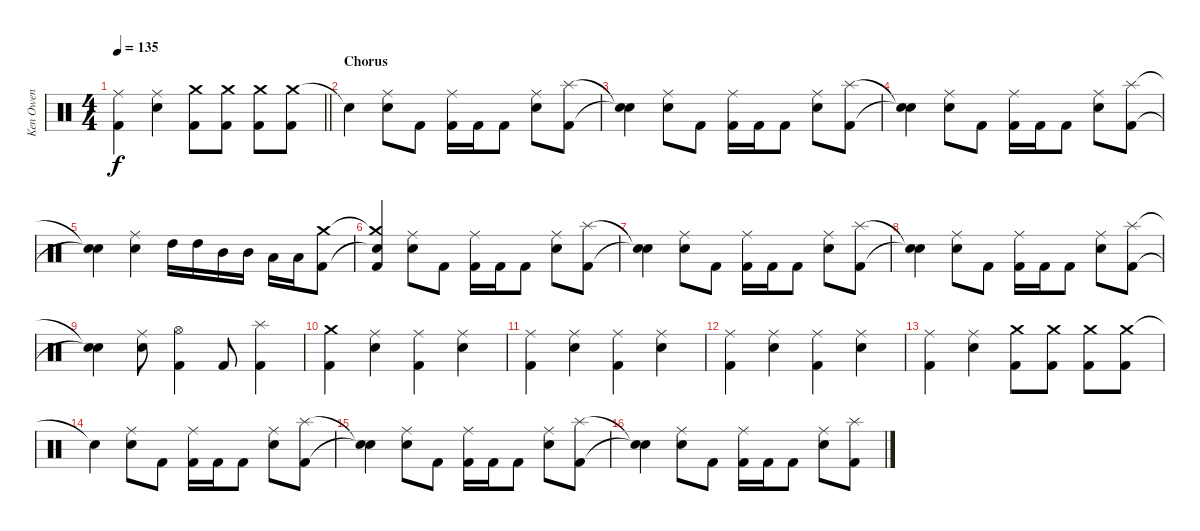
\track ("Ken Owen" "Ken Owen") {instrument percussion}
\staff {score}
\articulation defaults
\ts (4 4)
\tempo 135
\clef neutral
\barLineRight lightlight
\ks c
("Ride (middle)" "Kick (hit) 2").4{dy f} ("Ride (middle)" "Electric Snare (hit)").4 ("Crash medium (hit)" "Kick (hit) 2").8 ("Crash medium (hit)" "Kick (hit) 2").8 ("Crash medium (hit)" "Kick (hit) 2").8 ("Crash medium (hit)" "Kick (hit) 2").8 |
\section ("" "Chorus")
"Snare (hit)"{t}.4 ("Ride (middle)" "Electric Snare (hit)").8 "Kick (hit) 2".8 ("Ride (middle)" "Kick (hit) 2").16 "Kick (hit) 2".16 "Kick (hit) 2".8 ("Ride (middle)" "Electric Snare (hit)").8 ("Splash (hit)" "Kick (hit) 2").8 |
("Snare (hit)"{t} "Snare (hit)"{t}).4 ("Ride (middle)" "Electric Snare (hit)").8 "Kick (hit) 2".8 ("Ride (middle)" "Kick (hit) 2").16 "Kick (hit) 2".16 "Kick (hit) 2".8 ("Ride (middle)" "Electric Snare (hit)").8 ("Splash (hit)" "Kick (hit) 2").8 |
("Snare (hit)"{t} "Snare (hit)"{t}).4 ("Ride (middle)" "Electric Snare (hit)").8 "Kick (hit) 2".8 ("Ride (middle)" "Kick (hit) 2").16 "Kick (hit) 2".16 "Kick (hit) 2".8 ("Ride (middle)" "Electric Snare (hit)").8 ("Splash (hit)" "Kick (hit) 2").8 |
("Snare (hit)"{t} "Snare (hit)"{t}).4 ("Ride (middle)" "Electric Snare (hit)").4 "High Tom (hit)".16 "High Tom (hit)".16 "Mid Tom (hit)".16 "Mid Tom (hit)".16 "Low Tom (hit)".16 "Low Tom (hit)".16 ("Crash medium (hit)" "Kick (hit) 2").8 |
("Crash medium (hit)"{t} "Snare (hit)"{t} "Kick (hit) 2").4 ("Ride (middle)" "Electric Snare (hit)").8 "Kick (hit) 2".8 ("Ride (middle)" "Kick (hit) 2").16 "Kick (hit) 2".16 "Kick (hit) 2".8 ("Ride (middle)" "Electric Snare (hit)").8 ("Splash (hit)" "Kick (hit) 2").8 |
("Snare (hit)"{t} "Snare (hit)"{t}).4 ("Ride (middle)" "Electric Snare (hit)").8 "Kick (hit) 2".8 ("Ride (middle)" "Kick (hit) 2").16 "Kick (hit) 2".16 "Kick (hit) 2".8 ("Ride (middle)" "Electric Snare (hit)").8 ("Splash (hit)" "Kick (hit) 2").8 |
("Snare (hit)"{t} "Snare (hit)"{t}).4 ("Ride (middle)" "Electric Snare (hit)").8 "Kick (hit) 2".8 ("Ride (middle)" "Kick (hit) 2").16 "Kick (hit) 2".16 "Kick (hit) 2".8 ("Ride (middle)" "Electric Snare (hit)").8 ("Splash (hit)" "Kick (hit) 2").8 |
("Snare (hit)"{t} "Snare (hit)"{t}).4 ("Ride (middle)" "Electric Snare (hit)").8 ("Hi-Hat (open)" "Kick (hit) 2").4 "Kick (hit) 2".8 ("Splash (hit)" "Kick (hit) 2").4 |
("Crash medium (hit)" "Kick (hit) 2").4 ("Ride (middle)" "Electric Snare (hit)").4 ("Ride (middle)" "Kick (hit) 2").4 ("Ride (middle)" "Electric Snare (hit)").4 |
("Ride (middle)" "Kick (hit) 2").4 ("Ride (middle)" "Electric Snare (hit)").4 ("Ride (middle)" "Kick (hit) 2").4 ("Ride (middle)" "Electric Snare (hit)").4 |
("Ride (middle)" "Kick (hit) 2").4 ("Ride (middle)" "Electric Snare (hit)").4 ("Ride (middle)" "Kick (hit) 2").4 ("Ride (middle)" "Electric Snare (hit)").4 |
("Ride (middle)" "Kick (hit) 2").4 ("Ride (middle)" "Electric Snare (hit)").4 ("Crash medium (hit)" "Kick (hit) 2").8 ("Crash medium (hit)" "Kick (hit) 2").8 ("Crash medium (hit)" "Kick (hit) 2").8 ("Crash medium (hit)" "Kick (hit) 2").8 |
"Snare (hit)"{t}.4 ("Ride (middle)" "Electric Snare (hit)").8 "Kick (hit) 2".8 ("Ride (middle)" "Kick (hit) 2").16 "Kick (hit) 2".16 "Kick (hit) 2".8 ("Ride (middle)" "Electric Snare (hit)").8 ("Splash (hit)" "Kick (hit) 2").8 |
("Snare (hit)"{t} "Snare (hit)"{t}).4 ("Ride (middle)" "Electric Snare (hit)").8 "Kick (hit) 2".8 ("Ride (middle)" "Kick (hit) 2").16 "Kick (hit) 2".16 "Kick (hit) 2".8 ("Ride (middle)" "Electric Snare (hit)").8 ("Splash (hit)" "Kick (hit) 2").8 |
("Snare (hit)"{t} "Snare (hit)"{t}).4 ("Ride (middle)" "Electric Snare (hit)").8 "Kick (hit) 2".8 ("Ride (middle)" "Kick (hit) 2").16 "Kick (hit) 2".16 "Kick (hit) 2".8 ("Ride (middle)" "Electric Snare (hit)").8 ("Splash (hit)" "Kick (hit) 2").8
